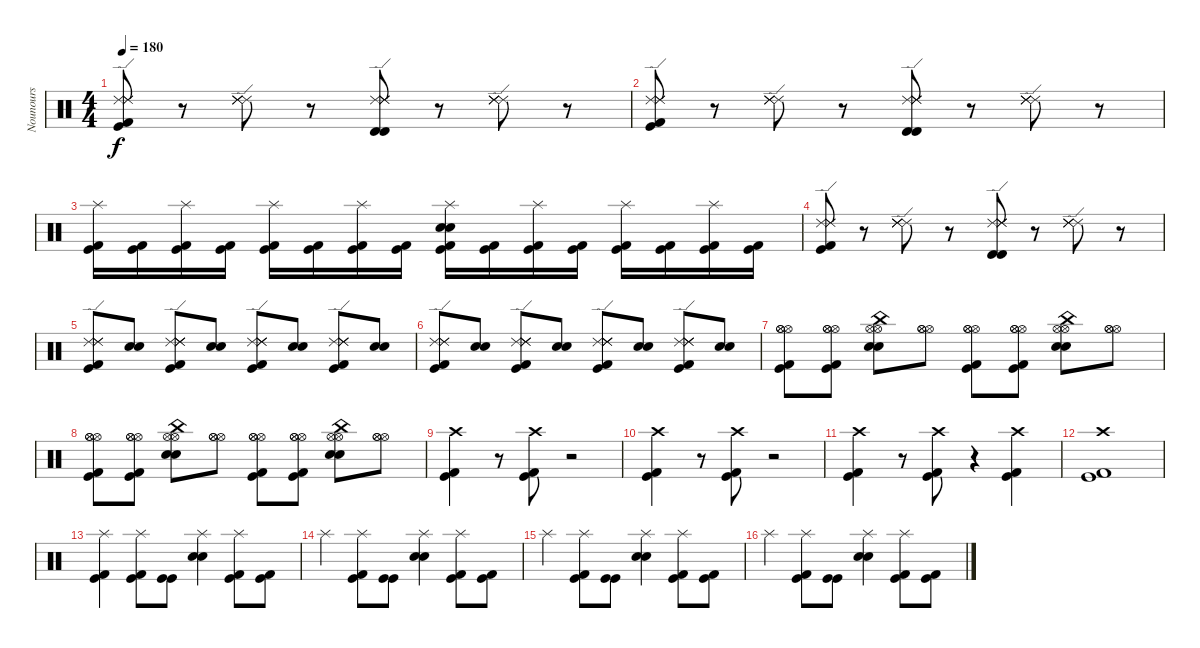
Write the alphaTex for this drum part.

\track ("Nounours" "Nounours") {instrument percussion}
\staff {score}
\articulation defaults
\ts (4 4)
\tempo 180
\clef neutral
\ks c
("Ride (edge) 2" "Ride (edge) 2" "Ride (edge) 2" "Kick (hit) 2" "Kick (hit)").8{dy f} r.8 ("Ride (edge) 2" "Ride (edge) 2" "Ride (edge) 2" "Ride (edge) 2").8 r.8 ("Ride (edge) 2" "Ride (edge) 2" "Timbale high (hit)" "Timbale high (hit)" "Ride (edge) 2" "Ride (edge) 2").8 r.8 ("Ride (edge) 2" "Ride (edge) 2" "Ride (edge) 2" "Ride (edge) 2").8 r.8 |
("Ride (edge) 2" "Ride (edge) 2" "Ride (edge) 2" "Kick (hit) 2" "Kick (hit)").8 r.8 ("Ride (edge) 2" "Ride (edge) 2" "Ride (edge) 2" "Ride (edge) 2").8 r.8 ("Ride (edge) 2" "Ride (edge) 2" "Timbale high (hit)" "Timbale high (hit)" "Ride (edge) 2" "Ride (edge) 2").8 r.8 ("Ride (edge) 2" "Ride (edge) 2" "Ride (edge) 2" "Ride (edge) 2").8 r.8 |
("Splash (hit)" "Kick (hit) 2" "Kick (hit)").16 ("Kick (hit)" "Kick (hit) 2").16 ("Splash (hit)" "Kick (hit)" "Kick (hit) 2").16 ("Kick (hit) 2" "Kick (hit)").16 ("Splash (hit)" "Kick (hit) 2" "Kick (hit)").16 ("Kick (hit) 2" "Kick (hit)").16 ("Splash (hit)" "Kick (hit)" "Kick (hit) 2").16 ("Kick (hit)" "Kick (hit) 2").16 ("Splash (hit)" "Electric Snare (hit)" "Snare (hit) 2" "Kick (hit)" "Kick (hit) 2").16 ("Kick (hit)" "Kick (hit) 2").16 ("Splash (hit)" "Kick (hit) 2" "Kick (hit)").16 ("Kick (hit)" "Kick (hit) 2").16 ("Splash (hit)" "Kick (hit) 2" "Kick (hit)").16 ("Kick (hit) 2" "Kick (hit)").16 ("Splash (hit)" "Kick (hit)" "Kick (hit) 2").16 ("Kick (hit)" "Kick (hit) 2").16 |
("Ride (edge) 2" "Ride (edge) 2" "Ride (edge) 2" "Kick (hit) 2" "Kick (hit)").8 r.8 ("Ride (edge) 2" "Ride (edge) 2" "Ride (edge) 2" "Ride (edge) 2").8 r.8 ("Ride (edge) 2" "Ride (edge) 2" "Timbale high (hit)" "Timbale high (hit)" "Ride (edge) 2" "Ride (edge) 2").8 r.8 ("Ride (edge) 2" "Ride (edge) 2" "Ride (edge) 2" "Ride (edge) 2").8 r.8 |
("Ride (edge) 2" "Ride (edge) 2" "Ride (edge) 2" "Kick (hit) 2" "Kick (hit)").8 ("Snare (hit) 2" "Electric Snare (hit)").8 ("Ride (edge) 2" "Ride (edge) 2" "Ride (edge) 2" "Ride (edge) 2" "Kick (hit) 2" "Kick (hit)").8 ("Snare (hit) 2" "Electric Snare (hit)").8 ("Ride (edge) 2" "Ride (edge) 2" "Kick (hit) 2" "Kick (hit)" "Ride (edge) 2" "Ride (edge) 2").8 ("Electric Snare (hit)" "Snare (hit) 2").8 ("Ride (edge) 2" "Ride (edge) 2" "Ride (edge) 2" "Ride (edge) 2" "Kick (hit)" "Kick (hit) 2").8 ("Snare (hit) 2" "Electric Snare (hit)").8 |
("Ride (edge) 2" "Ride (edge) 2" "Ride (edge) 2" "Kick (hit) 2" "Kick (hit)").8 ("Snare (hit) 2" "Electric Snare (hit)").8 ("Ride (edge) 2" "Ride (edge) 2" "Ride (edge) 2" "Ride (edge) 2" "Kick (hit) 2" "Kick (hit)").8 ("Snare (hit) 2" "Electric Snare (hit)").8 ("Ride (edge) 2" "Ride (edge) 2" "Kick (hit) 2" "Kick (hit)" "Ride (edge) 2" "Ride (edge) 2").8 ("Electric Snare (hit)" "Snare (hit) 2").8 ("Ride (edge) 2" "Ride (edge) 2" "Ride (edge) 2" "Ride (edge) 2" "Kick (hit)" "Kick (hit) 2").8 ("Snare (hit) 2" "Electric Snare (hit)").8 |
("Hi-Hat (open)" "Hi-Hat (open)" "Hi-Hat (open)" "Kick (hit) 2" "Kick (hit)").8 ("Hi-Hat (open)" "Hi-Hat (open)" "Hi-Hat (open)" "Kick (hit)" "Kick (hit) 2").8 ("China (hit)" "Hi-Hat (open)" "Hi-Hat (open)" "Electric Snare (hit)" "Snare (hit) 2").8 ("Hi-Hat (open)" "Hi-Hat (open)" "Hi-Hat (open)").8 ("Hi-Hat (open)" "Hi-Hat (open)" "Hi-Hat (open)" "Kick (hit) 2" "Kick (hit)").8 ("Hi-Hat (open)" "Hi-Hat (open)" "Hi-Hat (open)" "Kick (hit) 2" "Kick (hit)").8 ("China (hit)" "Hi-Hat (open)" "Hi-Hat (open)" "Electric Snare (hit)" "Snare (hit) 2").8 ("Hi-Hat (open)" "Hi-Hat (open)" "Hi-Hat (open)").8 |
("Hi-Hat (open)" "Hi-Hat (open)" "Hi-Hat (open)" "Kick (hit) 2" "Kick (hit)").8 ("Hi-Hat (open)" "Hi-Hat (open)" "Hi-Hat (open)" "Kick (hit)" "Kick (hit) 2").8 ("China (hit)" "Hi-Hat (open)" "Hi-Hat (open)" "Electric Snare (hit)" "Snare (hit) 2").8 ("Hi-Hat (open)" "Hi-Hat (open)" "Hi-Hat (open)").8 ("Hi-Hat (open)" "Hi-Hat (open)" "Hi-Hat (open)" "Kick (hit) 2" "Kick (hit)").8 ("Hi-Hat (open)" "Hi-Hat (open)" "Hi-Hat (open)" "Kick (hit) 2" "Kick (hit)").8 ("China (hit)" "Hi-Hat (open)" "Hi-Hat (open)" "Electric Snare (hit)" "Snare (hit) 2").8 ("Hi-Hat (open)" "Hi-Hat (open)" "Hi-Hat (open)").8 |
("Crash high (hit)" "Kick (hit)" "Kick (hit) 2").4 r.8 ("Crash high (hit)" "Kick (hit)" "Kick (hit) 2").8 r.2 |
("Crash high (hit)" "Kick (hit)" "Kick (hit) 2").4 r.8 ("Crash high (hit)" "Kick (hit)" "Kick (hit) 2").8 r.2 |
("Crash high (hit)" "Kick (hit)" "Kick (hit) 2").4 r.8 ("Crash high (hit)" "Kick (hit)" "Kick (hit) 2").8 r.4 ("Crash high (hit)" "Kick (hit) 2" "Kick (hit)").4 |
("Crash high (hit)" "Kick (hit)" "Kick (hit) 2").1 |
("Splash (hit)" "Kick (hit) 2" "Kick (hit)").4 ("Splash (hit)" "Kick (hit)" "Kick (hit) 2").8 ("Kick (hit)" "Kick (hit)").8 ("Splash (hit)" "Snare (hit) 2" "Electric Snare (hit)").4 ("Splash (hit)" "Kick (hit) 2" "Kick (hit)").8 ("Kick (hit) 2" "Kick (hit)").8 |
"Splash (hit)".4 ("Splash (hit)" "Kick (hit)" "Kick (hit) 2").8 ("Kick (hit)" "Kick (hit)").8 ("Splash (hit)" "Snare (hit) 2" "Electric Snare (hit)").4 ("Splash (hit)" "Kick (hit) 2" "Kick (hit)").8 ("Kick (hit) 2" "Kick (hit)").8 |
"Splash (hit)".4 ("Splash (hit)" "Kick (hit)" "Kick (hit) 2").8 ("Kick (hit)" "Kick (hit)").8 ("Splash (hit)" "Snare (hit) 2" "Electric Snare (hit)").4 ("Splash (hit)" "Kick (hit) 2" "Kick (hit)").8 ("Kick (hit) 2" "Kick (hit)").8 |
"Splash (hit)".4 ("Splash (hit)" "Kick (hit)" "Kick (hit) 2").8 ("Kick (hit)" "Kick (hit)").8 ("Splash (hit)" "Snare (hit) 2" "Electric Snare (hit)").4 ("Splash (hit)" "Kick (hit) 2" "Kick (hit)").8 ("Kick (hit) 2" "Kick (hit)").8
